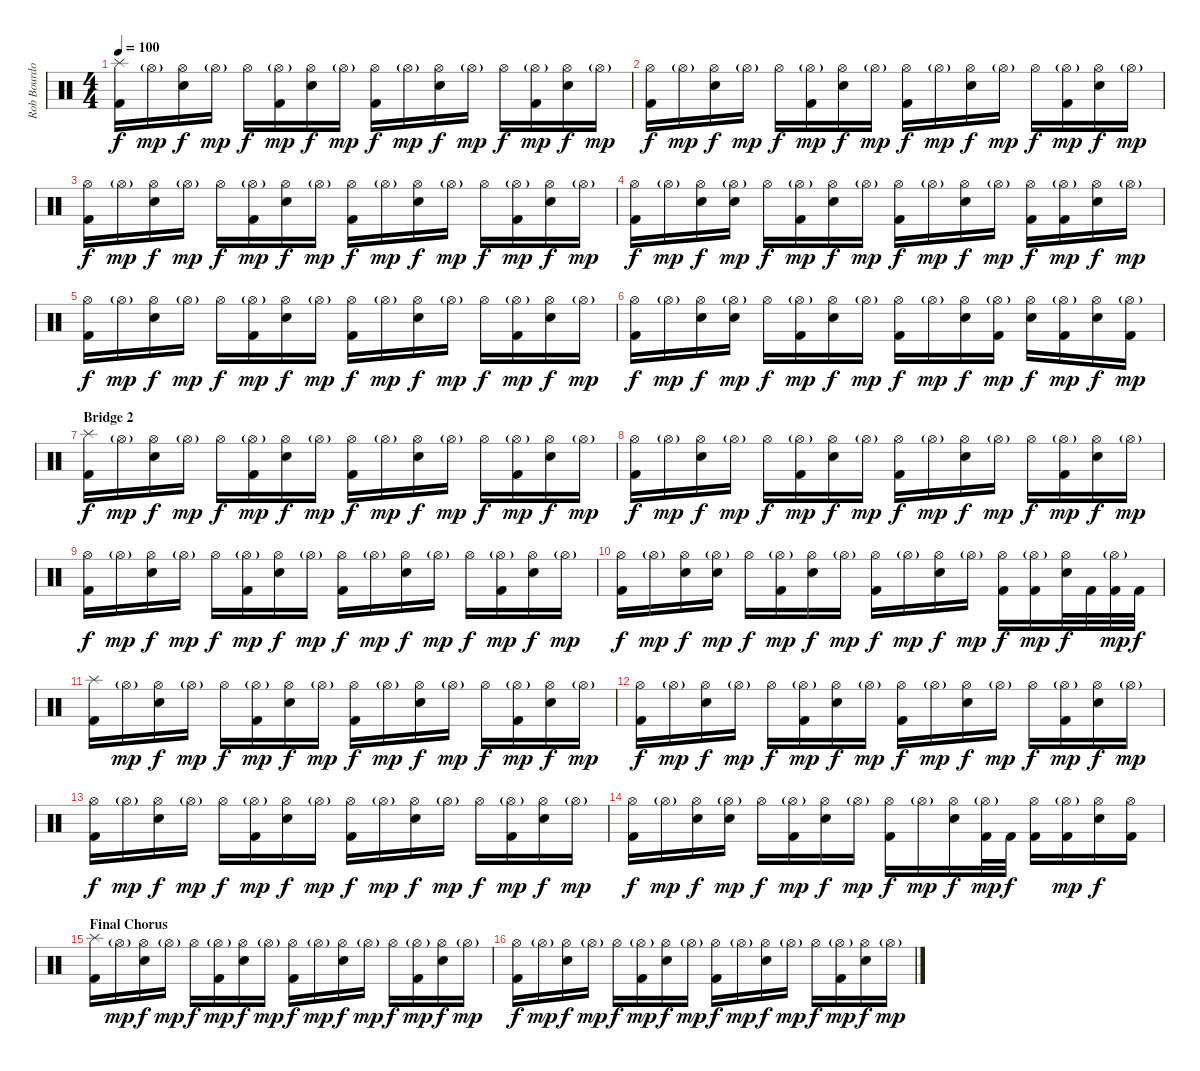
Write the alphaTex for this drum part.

\track ("Rob Bourdon (Drums)" "Rob Bourdo") {instrument percussion}
\staff {score}
\articulation defaults
\ts (4 4)
\tempo 100
\clef neutral
\ks c
("Splash (hit)" "Kick (hit) 2").16{dy f} "Hi-Hat (open)"{g}.16{dy mp} ("Hi-Hat (open)" "Electric Snare (hit)").16{dy f} "Hi-Hat (open)"{g}.16{dy mp} "Hi-Hat (open)".16{dy f} ("Hi-Hat (open)"{g} "Kick (hit) 2").16{dy mp} ("Hi-Hat (open)" "Electric Snare (hit)").16{dy f} "Hi-Hat (open)"{g}.16{dy mp} ("Hi-Hat (open)" "Kick (hit) 2").16{dy f} "Hi-Hat (open)"{g}.16{dy mp} ("Hi-Hat (open)" "Electric Snare (hit)").16{dy f} "Hi-Hat (open)"{g}.16{dy mp} "Hi-Hat (open)".16{dy f} ("Hi-Hat (open)"{g} "Kick (hit) 2").16{dy mp} ("Hi-Hat (open)" "Electric Snare (hit)").16{dy f} "Hi-Hat (open)"{g}.16{dy mp} |
("Hi-Hat (open)" "Kick (hit) 2").16{dy f} "Hi-Hat (open)"{g}.16{dy mp} ("Hi-Hat (open)" "Electric Snare (hit)").16{dy f} "Hi-Hat (open)"{g}.16{dy mp} "Hi-Hat (open)".16{dy f} ("Hi-Hat (open)"{g} "Kick (hit) 2").16{dy mp} ("Hi-Hat (open)" "Electric Snare (hit)").16{dy f} "Hi-Hat (open)"{g}.16{dy mp} ("Hi-Hat (open)" "Kick (hit) 2").16{dy f} "Hi-Hat (open)"{g}.16{dy mp} ("Hi-Hat (open)" "Electric Snare (hit)").16{dy f} "Hi-Hat (open)"{g}.16{dy mp} "Hi-Hat (open)".16{dy f} ("Hi-Hat (open)"{g} "Kick (hit) 2").16{dy mp} ("Hi-Hat (open)" "Electric Snare (hit)").16{dy f} "Hi-Hat (open)"{g}.16{dy mp} |
("Hi-Hat (open)" "Kick (hit) 2").16{dy f} "Hi-Hat (open)"{g}.16{dy mp} ("Hi-Hat (open)" "Electric Snare (hit)").16{dy f} "Hi-Hat (open)"{g}.16{dy mp} "Hi-Hat (open)".16{dy f} ("Hi-Hat (open)"{g} "Kick (hit) 2").16{dy mp} ("Hi-Hat (open)" "Electric Snare (hit)").16{dy f} "Hi-Hat (open)"{g}.16{dy mp} ("Hi-Hat (open)" "Kick (hit) 2").16{dy f} "Hi-Hat (open)"{g}.16{dy mp} ("Hi-Hat (open)" "Electric Snare (hit)").16{dy f} "Hi-Hat (open)"{g}.16{dy mp} "Hi-Hat (open)".16{dy f} ("Hi-Hat (open)"{g} "Kick (hit) 2").16{dy mp} ("Hi-Hat (open)" "Electric Snare (hit)").16{dy f} "Hi-Hat (open)"{g}.16{dy mp} |
("Hi-Hat (open)" "Kick (hit) 2").16{dy f} "Hi-Hat (open)"{g}.16{dy mp} ("Hi-Hat (open)" "Electric Snare (hit)").16{dy f} ("Hi-Hat (open)"{g} "Electric Snare (hit)").16{dy mp} "Hi-Hat (open)".16{dy f} ("Hi-Hat (open)"{g} "Kick (hit) 2").16{dy mp} ("Hi-Hat (open)" "Electric Snare (hit)").16{dy f} "Hi-Hat (open)"{g}.16{dy mp} ("Hi-Hat (open)" "Kick (hit) 2").16{dy f} "Hi-Hat (open)"{g}.16{dy mp} ("Hi-Hat (open)" "Electric Snare (hit)").16{dy f} "Hi-Hat (open)"{g}.16{dy mp} ("Hi-Hat (open)" "Kick (hit) 2").16{dy f} ("Hi-Hat (open)"{g} "Kick (hit) 2").16{dy mp} ("Hi-Hat (open)" "Electric Snare (hit)").16{dy f} "Hi-Hat (open)"{g}.16{dy mp} |
("Hi-Hat (open)" "Kick (hit) 2").16{dy f} "Hi-Hat (open)"{g}.16{dy mp} ("Hi-Hat (open)" "Electric Snare (hit)").16{dy f} "Hi-Hat (open)"{g}.16{dy mp} "Hi-Hat (open)".16{dy f} ("Hi-Hat (open)"{g} "Kick (hit) 2").16{dy mp} ("Hi-Hat (open)" "Electric Snare (hit)").16{dy f} "Hi-Hat (open)"{g}.16{dy mp} ("Hi-Hat (open)" "Kick (hit) 2").16{dy f} "Hi-Hat (open)"{g}.16{dy mp} ("Hi-Hat (open)" "Electric Snare (hit)").16{dy f} "Hi-Hat (open)"{g}.16{dy mp} "Hi-Hat (open)".16{dy f} ("Hi-Hat (open)"{g} "Kick (hit) 2").16{dy mp} ("Hi-Hat (open)" "Electric Snare (hit)").16{dy f} "Hi-Hat (open)"{g}.16{dy mp} |
("Hi-Hat (open)" "Kick (hit) 2").16{dy f} "Hi-Hat (open)"{g}.16{dy mp} ("Hi-Hat (open)" "Electric Snare (hit)").16{dy f} ("Hi-Hat (open)"{g} "Electric Snare (hit)").16{dy mp} "Hi-Hat (open)".16{dy f} ("Hi-Hat (open)"{g} "Kick (hit) 2").16{dy mp} ("Hi-Hat (open)" "Electric Snare (hit)").16{dy f} "Hi-Hat (open)"{g}.16{dy mp} ("Hi-Hat (open)" "Kick (hit) 2").16{dy f} "Hi-Hat (open)"{g}.16{dy mp} ("Hi-Hat (open)" "Electric Snare (hit)").16{dy f} ("Hi-Hat (open)"{g} "Kick (hit) 2").16{dy mp} ("Hi-Hat (open)" "Electric Snare (hit)").16{dy f} ("Hi-Hat (open)"{g} "Kick (hit) 2").16{dy mp} ("Hi-Hat (open)" "Electric Snare (hit)").16{dy f} ("Hi-Hat (open)"{g} "Kick (hit) 2").16{dy mp} |
\section ("" "Bridge 2")
("Splash (hit)" "Kick (hit) 2").16{dy f} "Hi-Hat (open)"{g}.16{dy mp} ("Hi-Hat (open)" "Electric Snare (hit)").16{dy f} "Hi-Hat (open)"{g}.16{dy mp} "Hi-Hat (open)".16{dy f} ("Hi-Hat (open)"{g} "Kick (hit) 2").16{dy mp} ("Hi-Hat (open)" "Electric Snare (hit)").16{dy f} "Hi-Hat (open)"{g}.16{dy mp} ("Hi-Hat (open)" "Kick (hit) 2").16{dy f} "Hi-Hat (open)"{g}.16{dy mp} ("Hi-Hat (open)" "Electric Snare (hit)").16{dy f} "Hi-Hat (open)"{g}.16{dy mp} "Hi-Hat (open)".16{dy f} ("Hi-Hat (open)"{g} "Kick (hit) 2").16{dy mp} ("Hi-Hat (open)" "Electric Snare (hit)").16{dy f} "Hi-Hat (open)"{g}.16{dy mp} |
("Hi-Hat (open)" "Kick (hit) 2").16{dy f} "Hi-Hat (open)"{g}.16{dy mp} ("Hi-Hat (open)" "Electric Snare (hit)").16{dy f} "Hi-Hat (open)"{g}.16{dy mp} "Hi-Hat (open)".16{dy f} ("Hi-Hat (open)"{g} "Kick (hit) 2").16{dy mp} ("Hi-Hat (open)" "Electric Snare (hit)").16{dy f} "Hi-Hat (open)"{g}.16{dy mp} ("Hi-Hat (open)" "Kick (hit) 2").16{dy f} "Hi-Hat (open)"{g}.16{dy mp} ("Hi-Hat (open)" "Electric Snare (hit)").16{dy f} "Hi-Hat (open)"{g}.16{dy mp} "Hi-Hat (open)".16{dy f} ("Hi-Hat (open)"{g} "Kick (hit) 2").16{dy mp} ("Hi-Hat (open)" "Electric Snare (hit)").16{dy f} "Hi-Hat (open)"{g}.16{dy mp} |
("Hi-Hat (open)" "Kick (hit) 2").16{dy f} "Hi-Hat (open)"{g}.16{dy mp} ("Hi-Hat (open)" "Electric Snare (hit)").16{dy f} "Hi-Hat (open)"{g}.16{dy mp} "Hi-Hat (open)".16{dy f} ("Hi-Hat (open)"{g} "Kick (hit) 2").16{dy mp} ("Hi-Hat (open)" "Electric Snare (hit)").16{dy f} "Hi-Hat (open)"{g}.16{dy mp} ("Hi-Hat (open)" "Kick (hit) 2").16{dy f} "Hi-Hat (open)"{g}.16{dy mp} ("Hi-Hat (open)" "Electric Snare (hit)").16{dy f} "Hi-Hat (open)"{g}.16{dy mp} "Hi-Hat (open)".16{dy f} ("Hi-Hat (open)"{g} "Kick (hit) 2").16{dy mp} ("Hi-Hat (open)" "Electric Snare (hit)").16{dy f} "Hi-Hat (open)"{g}.16{dy mp} |
("Hi-Hat (open)" "Kick (hit) 2").16{dy f} "Hi-Hat (open)"{g}.16{dy mp} ("Hi-Hat (open)" "Electric Snare (hit)").16{dy f} ("Hi-Hat (open)"{g} "Electric Snare (hit)").16{dy mp} "Hi-Hat (open)".16{dy f} ("Hi-Hat (open)"{g} "Kick (hit) 2").16{dy mp} ("Hi-Hat (open)" "Electric Snare (hit)").16{dy f} "Hi-Hat (open)"{g}.16{dy mp} ("Hi-Hat (open)" "Kick (hit) 2").16{dy f} "Hi-Hat (open)"{g}.16{dy mp} ("Hi-Hat (open)" "Electric Snare (hit)").16{dy f} "Hi-Hat (open)"{g}.16{dy mp} ("Hi-Hat (open)" "Kick (hit) 2").16{dy f} ("Hi-Hat (open)"{g} "Kick (hit) 2").16{dy mp} ("Hi-Hat (open)" "Electric Snare (hit)").32{dy f} "Kick (hit) 2".32 ("Hi-Hat (open)"{g} "Kick (hit) 2").32{dy mp} "Kick (hit) 2".32{dy f} |
("Splash (hit)" "Kick (hit) 2").16 "Hi-Hat (open)"{g}.16{dy mp} ("Hi-Hat (open)" "Electric Snare (hit)").16{dy f} "Hi-Hat (open)"{g}.16{dy mp} "Hi-Hat (open)".16{dy f} ("Hi-Hat (open)"{g} "Kick (hit) 2").16{dy mp} ("Hi-Hat (open)" "Electric Snare (hit)").16{dy f} "Hi-Hat (open)"{g}.16{dy mp} ("Hi-Hat (open)" "Kick (hit) 2").16{dy f} "Hi-Hat (open)"{g}.16{dy mp} ("Hi-Hat (open)" "Electric Snare (hit)").16{dy f} "Hi-Hat (open)"{g}.16{dy mp} "Hi-Hat (open)".16{dy f} ("Hi-Hat (open)"{g} "Kick (hit) 2").16{dy mp} ("Hi-Hat (open)" "Electric Snare (hit)").16{dy f} "Hi-Hat (open)"{g}.16{dy mp} |
("Hi-Hat (open)" "Kick (hit) 2").16{dy f} "Hi-Hat (open)"{g}.16{dy mp} ("Hi-Hat (open)" "Electric Snare (hit)").16{dy f} "Hi-Hat (open)"{g}.16{dy mp} "Hi-Hat (open)".16{dy f} ("Hi-Hat (open)"{g} "Kick (hit) 2").16{dy mp} ("Hi-Hat (open)" "Electric Snare (hit)").16{dy f} "Hi-Hat (open)"{g}.16{dy mp} ("Hi-Hat (open)" "Kick (hit) 2").16{dy f} "Hi-Hat (open)"{g}.16{dy mp} ("Hi-Hat (open)" "Electric Snare (hit)").16{dy f} "Hi-Hat (open)"{g}.16{dy mp} "Hi-Hat (open)".16{dy f} ("Hi-Hat (open)"{g} "Kick (hit) 2").16{dy mp} ("Hi-Hat (open)" "Electric Snare (hit)").16{dy f} "Hi-Hat (open)"{g}.16{dy mp} |
("Hi-Hat (open)" "Kick (hit) 2").16{dy f} "Hi-Hat (open)"{g}.16{dy mp} ("Hi-Hat (open)" "Electric Snare (hit)").16{dy f} "Hi-Hat (open)"{g}.16{dy mp} "Hi-Hat (open)".16{dy f} ("Hi-Hat (open)"{g} "Kick (hit) 2").16{dy mp} ("Hi-Hat (open)" "Electric Snare (hit)").16{dy f} "Hi-Hat (open)"{g}.16{dy mp} ("Hi-Hat (open)" "Kick (hit) 2").16{dy f} "Hi-Hat (open)"{g}.16{dy mp} ("Hi-Hat (open)" "Electric Snare (hit)").16{dy f} "Hi-Hat (open)"{g}.16{dy mp} "Hi-Hat (open)".16{dy f} ("Hi-Hat (open)"{g} "Kick (hit) 2").16{dy mp} ("Hi-Hat (open)" "Electric Snare (hit)").16{dy f} "Hi-Hat (open)"{g}.16{dy mp} |
("Hi-Hat (open)" "Kick (hit) 2").16{dy f} "Hi-Hat (open)"{g}.16{dy mp} ("Hi-Hat (open)" "Electric Snare (hit)").16{dy f} ("Hi-Hat (open)"{g} "Electric Snare (hit)").16{dy mp} "Hi-Hat (open)".16{dy f} ("Hi-Hat (open)"{g} "Kick (hit) 2").16{dy mp} ("Hi-Hat (open)" "Electric Snare (hit)").16{dy f} "Hi-Hat (open)"{g}.16{dy mp} ("Hi-Hat (open)" "Kick (hit) 2").16{dy f} "Hi-Hat (open)"{g}.16{dy mp} ("Hi-Hat (open)" "Electric Snare (hit)").16{dy f} ("Hi-Hat (open)"{g} "Kick (hit) 2").32{dy mp} "Kick (hit) 2".32{dy f} ("Hi-Hat (open)" "Kick (hit) 2").16 ("Hi-Hat (open)"{g} "Kick (hit) 2").16{dy mp} ("Hi-Hat (open)" "Electric Snare (hit)").16{dy f} ("Hi-Hat (open)" "Kick (hit) 2").16 |
\section ("" "Final Chorus")
("Splash (hit)" "Kick (hit) 2").16 "Hi-Hat (open)"{g}.16{dy mp} ("Hi-Hat (open)" "Electric Snare (hit)").16{dy f} "Hi-Hat (open)"{g}.16{dy mp} "Hi-Hat (open)".16{dy f} ("Hi-Hat (open)"{g} "Kick (hit) 2").16{dy mp} ("Hi-Hat (open)" "Electric Snare (hit)").16{dy f} "Hi-Hat (open)"{g}.16{dy mp} ("Hi-Hat (open)" "Kick (hit) 2").16{dy f} "Hi-Hat (open)"{g}.16{dy mp} ("Hi-Hat (open)" "Electric Snare (hit)").16{dy f} "Hi-Hat (open)"{g}.16{dy mp} "Hi-Hat (open)".16{dy f} ("Hi-Hat (open)"{g} "Kick (hit) 2").16{dy mp} ("Hi-Hat (open)" "Electric Snare (hit)").16{dy f} "Hi-Hat (open)"{g}.16{dy mp} |
("Hi-Hat (open)" "Kick (hit) 2").16{dy f} "Hi-Hat (open)"{g}.16{dy mp} ("Hi-Hat (open)" "Electric Snare (hit)").16{dy f} "Hi-Hat (open)"{g}.16{dy mp} "Hi-Hat (open)".16{dy f} ("Hi-Hat (open)"{g} "Kick (hit) 2").16{dy mp} ("Hi-Hat (open)" "Electric Snare (hit)").16{dy f} "Hi-Hat (open)"{g}.16{dy mp} ("Hi-Hat (open)" "Kick (hit) 2").16{dy f} "Hi-Hat (open)"{g}.16{dy mp} ("Hi-Hat (open)" "Electric Snare (hit)").16{dy f} "Hi-Hat (open)"{g}.16{dy mp} "Hi-Hat (open)".16{dy f} ("Hi-Hat (open)"{g} "Kick (hit) 2").16{dy mp} ("Hi-Hat (open)" "Electric Snare (hit)").16{dy f} "Hi-Hat (open)"{g}.16{dy mp}
